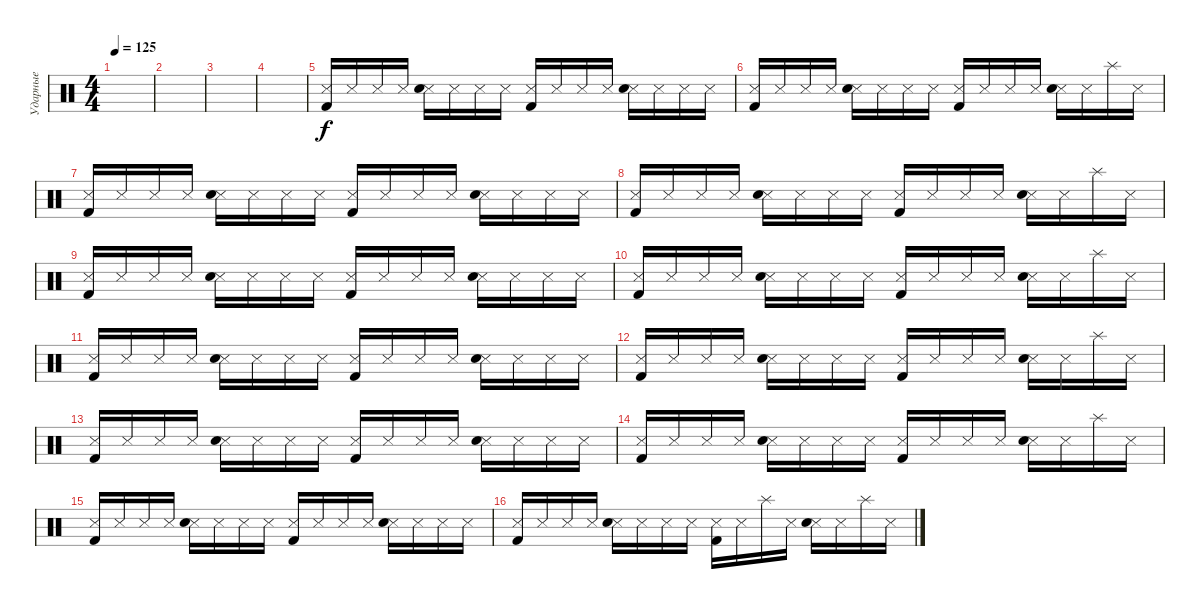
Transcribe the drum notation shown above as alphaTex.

\track ("Ударные" "Ударные") {instrument percussion}
\staff {score}
\articulation defaults
\ts (4 4)
\tempo 125
\clef neutral
\ks c
|
|
|
|
("Snare (side stick) 3" "Kick (hit) 2").16 "Snare (side stick) 3".16 "Snare (side stick) 3".16 "Snare (side stick) 3".16 ("Snare (side stick) 3" "Snare (hit) 2").16 "Snare (side stick) 3".16 "Snare (side stick) 3".16 "Snare (side stick) 3".16 ("Snare (side stick) 3" "Kick (hit) 2").16 "Snare (side stick) 3".16 "Snare (side stick) 3".16 "Snare (side stick) 3".16 ("Snare (side stick) 3" "Snare (hit) 2").16 "Snare (side stick) 3".16 "Snare (side stick) 3".16 "Snare (side stick) 3".16 |
("Snare (side stick) 3" "Kick (hit) 2").16 "Snare (side stick) 3".16 "Snare (side stick) 3".16 "Snare (side stick) 3".16 ("Snare (side stick) 3" "Snare (hit) 2").16 "Snare (side stick) 3".16 "Snare (side stick) 3".16 "Snare (side stick) 3".16 ("Snare (side stick) 3" "Kick (hit) 2").16 "Snare (side stick) 3".16 "Snare (side stick) 3".16 "Snare (side stick) 3".16 ("Snare (side stick) 3" "Snare (hit) 2").16 "Snare (side stick) 3".16 "Splash (hit)".16 "Snare (side stick) 3".16 |
("Snare (side stick) 3" "Kick (hit) 2").16 "Snare (side stick) 3".16 "Snare (side stick) 3".16 "Snare (side stick) 3".16 ("Snare (side stick) 3" "Snare (hit) 2").16 "Snare (side stick) 3".16 "Snare (side stick) 3".16 "Snare (side stick) 3".16 ("Snare (side stick) 3" "Kick (hit) 2").16 "Snare (side stick) 3".16 "Snare (side stick) 3".16 "Snare (side stick) 3".16 ("Snare (side stick) 3" "Snare (hit) 2").16 "Snare (side stick) 3".16 "Snare (side stick) 3".16 "Snare (side stick) 3".16 |
("Snare (side stick) 3" "Kick (hit) 2").16 "Snare (side stick) 3".16 "Snare (side stick) 3".16 "Snare (side stick) 3".16 ("Snare (side stick) 3" "Snare (hit) 2").16 "Snare (side stick) 3".16 "Snare (side stick) 3".16 "Snare (side stick) 3".16 ("Snare (side stick) 3" "Kick (hit) 2").16 "Snare (side stick) 3".16 "Snare (side stick) 3".16 "Snare (side stick) 3".16 ("Snare (side stick) 3" "Snare (hit) 2").16 "Snare (side stick) 3".16 "Splash (hit)".16 "Snare (side stick) 3".16 |
("Snare (side stick) 3" "Kick (hit) 2").16 "Snare (side stick) 3".16 "Snare (side stick) 3".16 "Snare (side stick) 3".16 ("Snare (side stick) 3" "Snare (hit) 2").16 "Snare (side stick) 3".16 "Snare (side stick) 3".16 "Snare (side stick) 3".16 ("Snare (side stick) 3" "Kick (hit) 2").16 "Snare (side stick) 3".16 "Snare (side stick) 3".16 "Snare (side stick) 3".16 ("Snare (side stick) 3" "Snare (hit) 2").16 "Snare (side stick) 3".16 "Snare (side stick) 3".16 "Snare (side stick) 3".16 |
("Snare (side stick) 3" "Kick (hit) 2").16 "Snare (side stick) 3".16 "Snare (side stick) 3".16 "Snare (side stick) 3".16 ("Snare (side stick) 3" "Snare (hit) 2").16 "Snare (side stick) 3".16 "Snare (side stick) 3".16 "Snare (side stick) 3".16 ("Snare (side stick) 3" "Kick (hit) 2").16 "Snare (side stick) 3".16 "Snare (side stick) 3".16 "Snare (side stick) 3".16 ("Snare (side stick) 3" "Snare (hit) 2").16 "Snare (side stick) 3".16 "Splash (hit)".16 "Snare (side stick) 3".16 |
("Snare (side stick) 3" "Kick (hit) 2").16 "Snare (side stick) 3".16 "Snare (side stick) 3".16 "Snare (side stick) 3".16 ("Snare (side stick) 3" "Snare (hit) 2").16 "Snare (side stick) 3".16 "Snare (side stick) 3".16 "Snare (side stick) 3".16 ("Snare (side stick) 3" "Kick (hit) 2").16 "Snare (side stick) 3".16 "Snare (side stick) 3".16 "Snare (side stick) 3".16 ("Snare (side stick) 3" "Snare (hit) 2").16 "Snare (side stick) 3".16 "Snare (side stick) 3".16 "Snare (side stick) 3".16 |
("Snare (side stick) 3" "Kick (hit) 2").16 "Snare (side stick) 3".16 "Snare (side stick) 3".16 "Snare (side stick) 3".16 ("Snare (side stick) 3" "Snare (hit) 2").16 "Snare (side stick) 3".16 "Snare (side stick) 3".16 "Snare (side stick) 3".16 ("Snare (side stick) 3" "Kick (hit) 2").16 "Snare (side stick) 3".16 "Snare (side stick) 3".16 "Snare (side stick) 3".16 ("Snare (side stick) 3" "Snare (hit) 2").16 "Snare (side stick) 3".16 "Splash (hit)".16 "Snare (side stick) 3".16 |
("Snare (side stick) 3" "Kick (hit) 2").16 "Snare (side stick) 3".16 "Snare (side stick) 3".16 "Snare (side stick) 3".16 ("Snare (side stick) 3" "Snare (hit) 2").16 "Snare (side stick) 3".16 "Snare (side stick) 3".16 "Snare (side stick) 3".16 ("Snare (side stick) 3" "Kick (hit) 2").16 "Snare (side stick) 3".16 "Snare (side stick) 3".16 "Snare (side stick) 3".16 ("Snare (side stick) 3" "Snare (hit) 2").16 "Snare (side stick) 3".16 "Snare (side stick) 3".16 "Snare (side stick) 3".16 |
("Snare (side stick) 3" "Kick (hit) 2").16 "Snare (side stick) 3".16 "Snare (side stick) 3".16 "Snare (side stick) 3".16 ("Snare (side stick) 3" "Snare (hit) 2").16 "Snare (side stick) 3".16 "Snare (side stick) 3".16 "Snare (side stick) 3".16 ("Snare (side stick) 3" "Kick (hit) 2").16 "Snare (side stick) 3".16 "Snare (side stick) 3".16 "Snare (side stick) 3".16 ("Snare (side stick) 3" "Snare (hit) 2").16 "Snare (side stick) 3".16 "Splash (hit)".16 "Snare (side stick) 3".16 |
("Snare (side stick) 3" "Kick (hit) 2").16 "Snare (side stick) 3".16 "Snare (side stick) 3".16 "Snare (side stick) 3".16 ("Snare (side stick) 3" "Snare (hit) 2").16 "Snare (side stick) 3".16 "Snare (side stick) 3".16 "Snare (side stick) 3".16 ("Snare (side stick) 3" "Kick (hit) 2").16 "Snare (side stick) 3".16 "Snare (side stick) 3".16 "Snare (side stick) 3".16 ("Snare (side stick) 3" "Snare (hit) 2").16 "Snare (side stick) 3".16 "Snare (side stick) 3".16 "Snare (side stick) 3".16 |
("Snare (side stick) 3" "Kick (hit) 2").16 "Snare (side stick) 3".16 "Snare (side stick) 3".16 "Snare (side stick) 3".16 ("Snare (side stick) 3" "Snare (hit) 2").16 "Snare (side stick) 3".16 "Snare (side stick) 3".16 "Snare (side stick) 3".16 ("Snare (side stick) 3" "Kick (hit) 2").16 "Snare (side stick) 3".16 "Splash (hit)".16 "Snare (side stick) 3".16 ("Snare (side stick) 3" "Snare (hit) 2").16 "Snare (side stick) 3".16 "Splash (hit)".16 "Snare (side stick) 3".16
